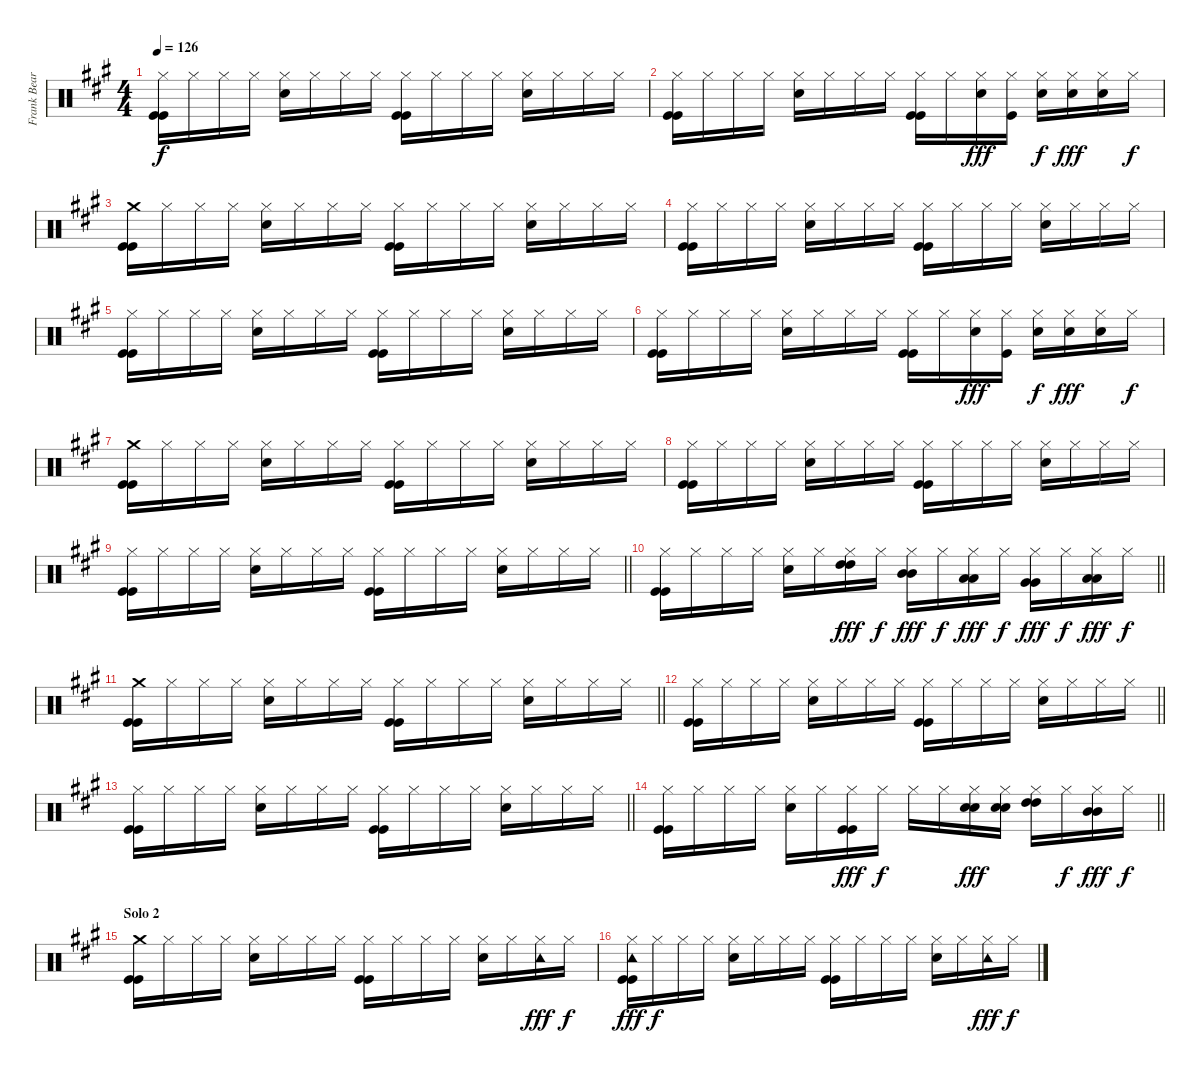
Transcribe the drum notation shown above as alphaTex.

\track ("Frank Beard: Drums" "Frank Bear") {instrument percussion}
\staff {score}
\articulation defaults
\ts (4 4)
\tempo 126
\clef neutral
\ks a
("Hi-Hat (closed)" "Kick (hit)" "Kick (hit)").16{dy f} "Hi-Hat (closed)".16 "Hi-Hat (closed)".16 "Hi-Hat (closed)".16 ("Hi-Hat (closed)" "Electric Snare (hit)").16 "Hi-Hat (closed)".16 "Hi-Hat (closed)".16 "Hi-Hat (closed)".16 ("Hi-Hat (closed)" "Kick (hit)" "Kick (hit)").16 "Hi-Hat (closed)".16 "Hi-Hat (closed)".16 "Hi-Hat (closed)".16 ("Hi-Hat (closed)" "Electric Snare (hit)").16 "Hi-Hat (closed)".16 "Hi-Hat (closed)".16 "Hi-Hat (closed)".16 |
("Hi-Hat (closed)" "Kick (hit)" "Kick (hit)").16 "Hi-Hat (closed)".16 "Hi-Hat (closed)".16 "Hi-Hat (closed)".16 ("Hi-Hat (closed)" "Electric Snare (hit)").16 "Hi-Hat (closed)".16 "Hi-Hat (closed)".16 "Hi-Hat (closed)".16 ("Hi-Hat (closed)" "Kick (hit)" "Kick (hit)").16 "Hi-Hat (closed)".16 ("Hi-Hat (closed)" "Electric Snare (hit)").16{dy fff} ("Hi-Hat (closed)" "Kick (hit)").16 ("Hi-Hat (closed)" "Electric Snare (hit)").16{dy f} ("Hi-Hat (closed)" "Electric Snare (hit)").16{dy fff} ("Hi-Hat (closed)" "Electric Snare (hit)").16 "Hi-Hat (closed)".16{dy f} |
("Crash medium (hit)" "Kick (hit)" "Kick (hit)").16 "Hi-Hat (closed)".16 "Hi-Hat (closed)".16 "Hi-Hat (closed)".16 ("Hi-Hat (closed)" "Electric Snare (hit)").16 "Hi-Hat (closed)".16 "Hi-Hat (closed)".16 "Hi-Hat (closed)".16 ("Hi-Hat (closed)" "Kick (hit)" "Kick (hit)").16 "Hi-Hat (closed)".16 "Hi-Hat (closed)".16 "Hi-Hat (closed)".16 ("Hi-Hat (closed)" "Electric Snare (hit)").16 "Hi-Hat (closed)".16 "Hi-Hat (closed)".16 "Hi-Hat (closed)".16 |
("Hi-Hat (closed)" "Kick (hit)" "Kick (hit)").16 "Hi-Hat (closed)".16 "Hi-Hat (closed)".16 "Hi-Hat (closed)".16 ("Hi-Hat (closed)" "Electric Snare (hit)").16 "Hi-Hat (closed)".16 "Hi-Hat (closed)".16 "Hi-Hat (closed)".16 ("Hi-Hat (closed)" "Kick (hit)" "Kick (hit)").16 "Hi-Hat (closed)".16 "Hi-Hat (closed)".16 "Hi-Hat (closed)".16 ("Hi-Hat (closed)" "Electric Snare (hit)").16 "Hi-Hat (closed)".16 "Hi-Hat (closed)".16 "Hi-Hat (closed)".16 |
("Hi-Hat (closed)" "Kick (hit)" "Kick (hit)").16 "Hi-Hat (closed)".16 "Hi-Hat (closed)".16 "Hi-Hat (closed)".16 ("Hi-Hat (closed)" "Electric Snare (hit)").16 "Hi-Hat (closed)".16 "Hi-Hat (closed)".16 "Hi-Hat (closed)".16 ("Hi-Hat (closed)" "Kick (hit)" "Kick (hit)").16 "Hi-Hat (closed)".16 "Hi-Hat (closed)".16 "Hi-Hat (closed)".16 ("Hi-Hat (closed)" "Electric Snare (hit)").16 "Hi-Hat (closed)".16 "Hi-Hat (closed)".16 "Hi-Hat (closed)".16 |
("Hi-Hat (closed)" "Kick (hit)" "Kick (hit)").16 "Hi-Hat (closed)".16 "Hi-Hat (closed)".16 "Hi-Hat (closed)".16 ("Hi-Hat (closed)" "Electric Snare (hit)").16 "Hi-Hat (closed)".16 "Hi-Hat (closed)".16 "Hi-Hat (closed)".16 ("Hi-Hat (closed)" "Kick (hit)" "Kick (hit)").16 "Hi-Hat (closed)".16 ("Hi-Hat (closed)" "Electric Snare (hit)").16{dy fff} ("Hi-Hat (closed)" "Kick (hit)").16 ("Hi-Hat (closed)" "Electric Snare (hit)").16{dy f} ("Hi-Hat (closed)" "Electric Snare (hit)").16{dy fff} ("Hi-Hat (closed)" "Electric Snare (hit)").16 "Hi-Hat (closed)".16{dy f} |
("Crash medium (hit)" "Kick (hit)" "Kick (hit)").16 "Hi-Hat (closed)".16 "Hi-Hat (closed)".16 "Hi-Hat (closed)".16 ("Hi-Hat (closed)" "Electric Snare (hit)").16 "Hi-Hat (closed)".16 "Hi-Hat (closed)".16 "Hi-Hat (closed)".16 ("Hi-Hat (closed)" "Kick (hit)" "Kick (hit)").16 "Hi-Hat (closed)".16 "Hi-Hat (closed)".16 "Hi-Hat (closed)".16 ("Hi-Hat (closed)" "Electric Snare (hit)").16 "Hi-Hat (closed)".16 "Hi-Hat (closed)".16 "Hi-Hat (closed)".16 |
("Hi-Hat (closed)" "Kick (hit)" "Kick (hit)").16 "Hi-Hat (closed)".16 "Hi-Hat (closed)".16 "Hi-Hat (closed)".16 ("Hi-Hat (closed)" "Electric Snare (hit)").16 "Hi-Hat (closed)".16 "Hi-Hat (closed)".16 "Hi-Hat (closed)".16 ("Hi-Hat (closed)" "Kick (hit)" "Kick (hit)").16 "Hi-Hat (closed)".16 "Hi-Hat (closed)".16 "Hi-Hat (closed)".16 ("Hi-Hat (closed)" "Electric Snare (hit)").16 "Hi-Hat (closed)".16 "Hi-Hat (closed)".16 "Hi-Hat (closed)".16 |
\barLineRight lightlight
("Hi-Hat (closed)" "Kick (hit)" "Kick (hit)").16 "Hi-Hat (closed)".16 "Hi-Hat (closed)".16 "Hi-Hat (closed)".16 ("Hi-Hat (closed)" "Electric Snare (hit)").16 "Hi-Hat (closed)".16 "Hi-Hat (closed)".16 "Hi-Hat (closed)".16 ("Hi-Hat (closed)" "Kick (hit)" "Kick (hit)").16 "Hi-Hat (closed)".16 "Hi-Hat (closed)".16 "Hi-Hat (closed)".16 ("Hi-Hat (closed)" "Electric Snare (hit)").16 "Hi-Hat (closed)".16 "Hi-Hat (closed)".16 "Hi-Hat (closed)".16 |
\barLineRight lightlight
("Hi-Hat (closed)" "Kick (hit)" "Kick (hit)").16 "Hi-Hat (closed)".16 "Hi-Hat (closed)".16 "Hi-Hat (closed)".16 ("Hi-Hat (closed)" "Electric Snare (hit)").16 "Hi-Hat (closed)".16 ("Hi-Hat (closed)" "High Tom (hit)" "High Tom (hit)").16{dy fff} "Hi-Hat (closed)".16{dy f} ("Hi-Hat (closed)" "Mid Tom (hit)" "Mid Tom (hit)").16{dy fff} "Hi-Hat (closed)".16{dy f} ("Hi-Hat (closed)" "Low Tom (hit)" "Low Tom (hit)").16{dy fff} "Hi-Hat (closed)".16{dy f} ("Hi-Hat (closed)" "Very Low Tom (hit)" "Very Low Tom (hit)").16{dy fff} "Hi-Hat (closed)".16{dy f} ("Hi-Hat (closed)" "Low Floor Tom (hit)" "Low Floor Tom (hit)").16{dy fff} "Hi-Hat (closed)".16{dy f} |
\barLineRight lightlight
("Crash medium (hit)" "Kick (hit)" "Kick (hit)").16 "Hi-Hat (closed)".16 "Hi-Hat (closed)".16 "Hi-Hat (closed)".16 ("Hi-Hat (closed)" "Electric Snare (hit)").16 "Hi-Hat (closed)".16 "Hi-Hat (closed)".16 "Hi-Hat (closed)".16 ("Hi-Hat (closed)" "Kick (hit)" "Kick (hit)").16 "Hi-Hat (closed)".16 "Hi-Hat (closed)".16 "Hi-Hat (closed)".16 ("Hi-Hat (closed)" "Electric Snare (hit)").16 "Hi-Hat (closed)".16 "Hi-Hat (closed)".16 "Hi-Hat (closed)".16 |
\barLineRight lightlight
("Hi-Hat (closed)" "Kick (hit)" "Kick (hit)").16 "Hi-Hat (closed)".16 "Hi-Hat (closed)".16 "Hi-Hat (closed)".16 ("Hi-Hat (closed)" "Electric Snare (hit)").16 "Hi-Hat (closed)".16 "Hi-Hat (closed)".16 "Hi-Hat (closed)".16 ("Hi-Hat (closed)" "Kick (hit)" "Kick (hit)").16 "Hi-Hat (closed)".16 "Hi-Hat (closed)".16 "Hi-Hat (closed)".16 ("Hi-Hat (closed)" "Electric Snare (hit)").16 "Hi-Hat (closed)".16 "Hi-Hat (closed)".16 "Hi-Hat (closed)".16 |
\barLineRight lightlight
("Hi-Hat (closed)" "Kick (hit)" "Kick (hit)").16 "Hi-Hat (closed)".16 "Hi-Hat (closed)".16 "Hi-Hat (closed)".16 ("Hi-Hat (closed)" "Electric Snare (hit)").16 "Hi-Hat (closed)".16 "Hi-Hat (closed)".16 "Hi-Hat (closed)".16 ("Hi-Hat (closed)" "Kick (hit)" "Kick (hit)").16 "Hi-Hat (closed)".16 "Hi-Hat (closed)".16 "Hi-Hat (closed)".16 ("Hi-Hat (closed)" "Electric Snare (hit)").16 "Hi-Hat (closed)".16 "Hi-Hat (closed)".16 "Hi-Hat (closed)".16 |
\barLineRight lightlight
("Hi-Hat (closed)" "Kick (hit)" "Kick (hit)").16 "Hi-Hat (closed)".16 "Hi-Hat (closed)".16 "Hi-Hat (closed)".16 ("Hi-Hat (closed)" "Electric Snare (hit)").16 "Hi-Hat (closed)".16 ("Hi-Hat (closed)" "Kick (hit)" "Kick (hit)").16{dy fff} "Hi-Hat (closed)".16{dy f} "Hi-Hat (closed)".16 "Hi-Hat (closed)".16 ("Hi-Hat (closed)" "Electric Snare (hit)" "Electric Snare (hit)").16{dy fff} ("Hi-Hat (closed)" "Electric Snare (hit)" "Electric Snare (hit)").16 ("Hi-Hat (closed)" "High Tom (hit)" "High Tom (hit)").16 "Hi-Hat (closed)".16{dy f} ("Hi-Hat (closed)" "Mid Tom (hit)" "Mid Tom (hit)").16{dy fff} "Hi-Hat (closed)".16{dy f} |
\section ("" "Solo 2")
("Crash medium (hit)" "Kick (hit)" "Kick (hit)").16 "Hi-Hat (closed)".16 "Hi-Hat (closed)".16 "Hi-Hat (closed)".16 ("Hi-Hat (closed)" "Electric Snare (hit)").16 "Hi-Hat (closed)".16 "Hi-Hat (closed)".16 "Hi-Hat (closed)".16 ("Hi-Hat (closed)" "Kick (hit)" "Kick (hit)").16 "Hi-Hat (closed)".16 "Hi-Hat (closed)".16 "Hi-Hat (closed)".16 ("Hi-Hat (closed)" "Electric Snare (hit)").16 "Hi-Hat (closed)".16 ("Hi-Hat (closed)" "Tambourine (hit)").16{dy fff} "Hi-Hat (closed)".16{dy f} |
("Hi-Hat (closed)" "Tambourine (hit)" "Kick (hit)" "Kick (hit)").16{dy fff} "Hi-Hat (closed)".16{dy f} "Hi-Hat (closed)".16 "Hi-Hat (closed)".16 ("Hi-Hat (closed)" "Electric Snare (hit)").16 "Hi-Hat (closed)".16 "Hi-Hat (closed)".16 "Hi-Hat (closed)".16 ("Hi-Hat (closed)" "Kick (hit)" "Kick (hit)").16 "Hi-Hat (closed)".16 "Hi-Hat (closed)".16 "Hi-Hat (closed)".16 ("Hi-Hat (closed)" "Electric Snare (hit)").16 "Hi-Hat (closed)".16 ("Hi-Hat (closed)" "Tambourine (hit)").16{dy fff} "Hi-Hat (closed)".16{dy f}
